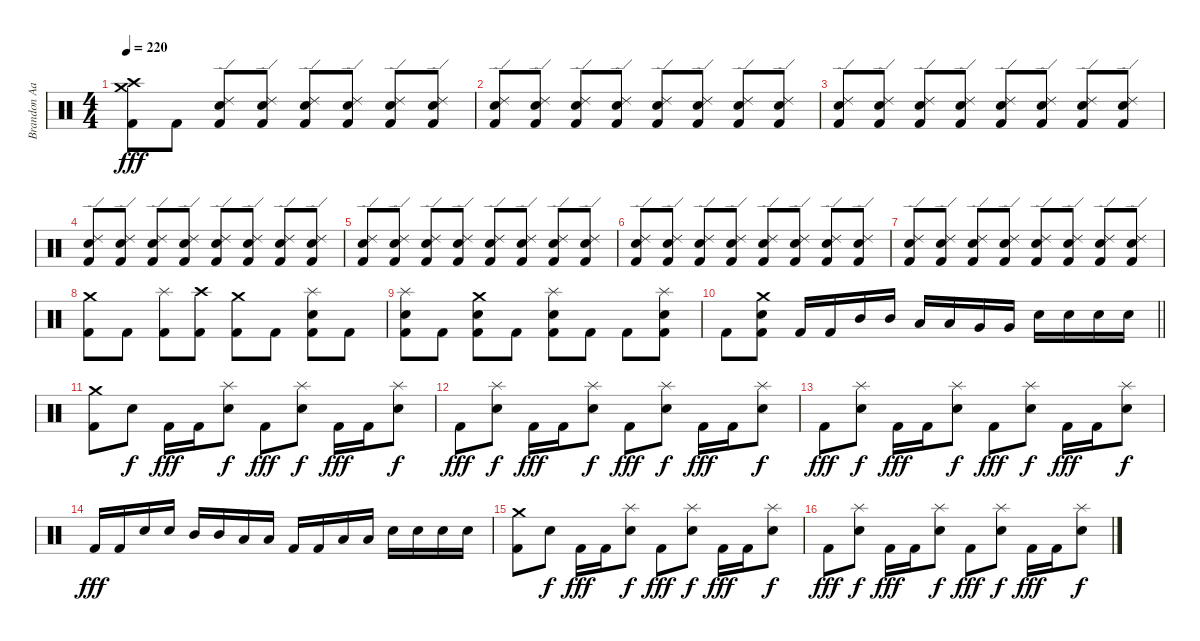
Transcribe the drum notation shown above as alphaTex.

\track ("Brandon Aaron Burkhalter" "Brandon Aa") {instrument percussion}
\staff {score}
\articulation defaults
\ts (4 4)
\tempo 220
\clef neutral
\ks c
("Crash medium (hit)" "Crash high (hit)" "Kick (hit) 2").8{dy fff} "Kick (hit) 2".8 ("Ride (edge) 2" "Snare (hit) 2" "Kick (hit) 2").8 ("Ride (edge) 2" "Snare (hit) 2" "Kick (hit) 2").8 ("Ride (edge) 2" "Snare (hit) 2" "Kick (hit) 2").8 ("Ride (edge) 2" "Snare (hit) 2" "Kick (hit) 2").8 ("Ride (edge) 2" "Snare (hit) 2" "Kick (hit) 2").8 ("Ride (edge) 2" "Snare (hit) 2" "Kick (hit) 2").8 |
("Ride (edge) 2" "Snare (hit) 2" "Kick (hit) 2").8 ("Ride (edge) 2" "Snare (hit) 2" "Kick (hit) 2").8 ("Ride (edge) 2" "Snare (hit) 2" "Kick (hit) 2").8 ("Ride (edge) 2" "Snare (hit) 2" "Kick (hit) 2").8 ("Ride (edge) 2" "Snare (hit) 2" "Kick (hit) 2").8 ("Ride (edge) 2" "Snare (hit) 2" "Kick (hit) 2").8 ("Ride (edge) 2" "Snare (hit) 2" "Kick (hit) 2").8 ("Ride (edge) 2" "Snare (hit) 2" "Kick (hit) 2").8 |
("Ride (edge) 2" "Snare (hit) 2" "Kick (hit) 2").8 ("Ride (edge) 2" "Snare (hit) 2" "Kick (hit) 2").8 ("Ride (edge) 2" "Snare (hit) 2" "Kick (hit) 2").8 ("Ride (edge) 2" "Snare (hit) 2" "Kick (hit) 2").8 ("Ride (edge) 2" "Snare (hit) 2" "Kick (hit) 2").8 ("Ride (edge) 2" "Snare (hit) 2" "Kick (hit) 2").8 ("Ride (edge) 2" "Snare (hit) 2" "Kick (hit) 2").8 ("Ride (edge) 2" "Snare (hit) 2" "Kick (hit) 2").8 |
("Ride (edge) 2" "Snare (hit) 2" "Kick (hit) 2").8 ("Ride (edge) 2" "Snare (hit) 2" "Kick (hit) 2").8 ("Ride (edge) 2" "Snare (hit) 2" "Kick (hit) 2").8 ("Ride (edge) 2" "Snare (hit) 2" "Kick (hit) 2").8 ("Ride (edge) 2" "Snare (hit) 2" "Kick (hit) 2").8 ("Ride (edge) 2" "Snare (hit) 2" "Kick (hit) 2").8 ("Ride (edge) 2" "Snare (hit) 2" "Kick (hit) 2").8 ("Ride (edge) 2" "Snare (hit) 2" "Kick (hit) 2").8 |
("Ride (edge) 2" "Snare (hit) 2" "Kick (hit) 2").8 ("Ride (edge) 2" "Snare (hit) 2" "Kick (hit) 2").8 ("Ride (edge) 2" "Snare (hit) 2" "Kick (hit) 2").8 ("Ride (edge) 2" "Snare (hit) 2" "Kick (hit) 2").8 ("Ride (edge) 2" "Snare (hit) 2" "Kick (hit) 2").8 ("Ride (edge) 2" "Snare (hit) 2" "Kick (hit) 2").8 ("Ride (edge) 2" "Snare (hit) 2" "Kick (hit) 2").8 ("Ride (edge) 2" "Snare (hit) 2" "Kick (hit) 2").8 |
("Ride (edge) 2" "Snare (hit) 2" "Kick (hit) 2").8 ("Ride (edge) 2" "Snare (hit) 2" "Kick (hit) 2").8 ("Ride (edge) 2" "Snare (hit) 2" "Kick (hit) 2").8 ("Ride (edge) 2" "Snare (hit) 2" "Kick (hit) 2").8 ("Ride (edge) 2" "Snare (hit) 2" "Kick (hit) 2").8 ("Ride (edge) 2" "Snare (hit) 2" "Kick (hit) 2").8 ("Ride (edge) 2" "Snare (hit) 2" "Kick (hit) 2").8 ("Ride (edge) 2" "Snare (hit) 2" "Kick (hit) 2").8 |
("Ride (edge) 2" "Snare (hit) 2" "Kick (hit) 2").8 ("Ride (edge) 2" "Snare (hit) 2" "Kick (hit) 2").8 ("Ride (edge) 2" "Snare (hit) 2" "Kick (hit) 2").8 ("Ride (edge) 2" "Snare (hit) 2" "Kick (hit) 2").8 ("Ride (edge) 2" "Snare (hit) 2" "Kick (hit) 2").8 ("Ride (edge) 2" "Snare (hit) 2" "Kick (hit) 2").8 ("Ride (edge) 2" "Snare (hit) 2" "Kick (hit) 2").8 ("Ride (edge) 2" "Snare (hit) 2" "Kick (hit) 2").8 |
("Crash medium (hit)" "Kick (hit) 2").8 "Kick (hit) 2".8 ("Splash (hit)" "Kick (hit) 2").8 ("Crash high (hit)" "Kick (hit) 2").8 ("Crash medium (hit)" "Kick (hit) 2").8 "Kick (hit) 2".8 ("Splash (hit)" "Snare (hit) 2" "Kick (hit) 2").8 "Kick (hit) 2".8 |
("Splash (hit)" "Snare (hit) 2" "Kick (hit) 2").8 "Kick (hit) 2".8 ("Crash medium (hit)" "Snare (hit) 2" "Kick (hit) 2").8 "Kick (hit) 2".8 ("Splash (hit)" "Snare (hit) 2" "Kick (hit) 2").8 "Kick (hit) 2".8 "Kick (hit) 2".8 ("Splash (hit)" "Snare (hit) 2" "Kick (hit) 2").8 |
\barLineRight lightlight "Kick (hit) 2".8
("Crash medium (hit)" "Snare (hit) 2" "Kick (hit) 2").8 "Kick (hit) 2".16 "Kick (hit) 2".16 "Mid Tom (hit)".16 "Mid Tom (hit)".16 "Low Tom (hit)".16 "Low Tom (hit)".16 "Very Low Tom (hit)".16 "Very Low Tom (hit)".16 "Snare (hit) 2".16 "Snare (hit) 2".16 "Snare (hit) 2".16 "Snare (hit) 2".16 |
("Crash medium (hit)" "Kick (hit) 2").8 "Snare (hit) 2".8{dy f} "Kick (hit) 2".16{dy fff} "Kick (hit) 2".16 ("Splash (hit)" "Snare (hit) 2").8{dy f} "Kick (hit) 2".8{dy fff} ("Splash (hit)" "Snare (hit) 2").8{dy f} "Kick (hit) 2".16{dy fff} "Kick (hit) 2".16 ("Splash (hit)" "Snare (hit) 2").8{dy f} |
"Kick (hit) 2".8{dy fff} ("Splash (hit)" "Snare (hit) 2").8{dy f} "Kick (hit) 2".16{dy fff} "Kick (hit) 2".16 ("Splash (hit)" "Snare (hit) 2").8{dy f} "Kick (hit) 2".8{dy fff} ("Splash (hit)" "Snare (hit) 2").8{dy f} "Kick (hit) 2".16{dy fff} "Kick (hit) 2".16 ("Splash (hit)" "Snare (hit) 2").8{dy f} |
"Kick (hit) 2".8{dy fff} ("Splash (hit)" "Snare (hit) 2").8{dy f} "Kick (hit) 2".16{dy fff} "Kick (hit) 2".16 ("Splash (hit)" "Snare (hit) 2").8{dy f} "Kick (hit) 2".8{dy fff} ("Splash (hit)" "Snare (hit) 2").8{dy f} "Kick (hit) 2".16{dy fff} "Kick (hit) 2".16 ("Splash (hit)" "Snare (hit) 2").8{dy f} |
"Kick (hit) 2".16{dy fff} "Kick (hit) 2".16 "Snare (hit) 2".16 "Snare (hit) 2".16 "Mid Tom (hit)".16 "Mid Tom (hit)".16 "Low Tom (hit)".16 "Low Tom (hit)".16 "Kick (hit) 2".16 "Kick (hit) 2".16 "Low Tom (hit)".16 "Low Tom (hit)".16 "Snare (hit) 2".16 "Snare (hit) 2".16 "Snare (hit) 2".16 "Snare (hit) 2".16 |
("Crash medium (hit)" "Kick (hit) 2").8 "Snare (hit) 2".8{dy f} "Kick (hit) 2".16{dy fff} "Kick (hit) 2".16 ("Splash (hit)" "Snare (hit) 2").8{dy f} "Kick (hit) 2".8{dy fff} ("Splash (hit)" "Snare (hit) 2").8{dy f} "Kick (hit) 2".16{dy fff} "Kick (hit) 2".16 ("Splash (hit)" "Snare (hit) 2").8{dy f} |
"Kick (hit) 2".8{dy fff} ("Splash (hit)" "Snare (hit) 2").8{dy f} "Kick (hit) 2".16{dy fff} "Kick (hit) 2".16 ("Splash (hit)" "Snare (hit) 2").8{dy f} "Kick (hit) 2".8{dy fff} ("Splash (hit)" "Snare (hit) 2").8{dy f} "Kick (hit) 2".16{dy fff} "Kick (hit) 2".16 ("Splash (hit)" "Snare (hit) 2").8{dy f}
